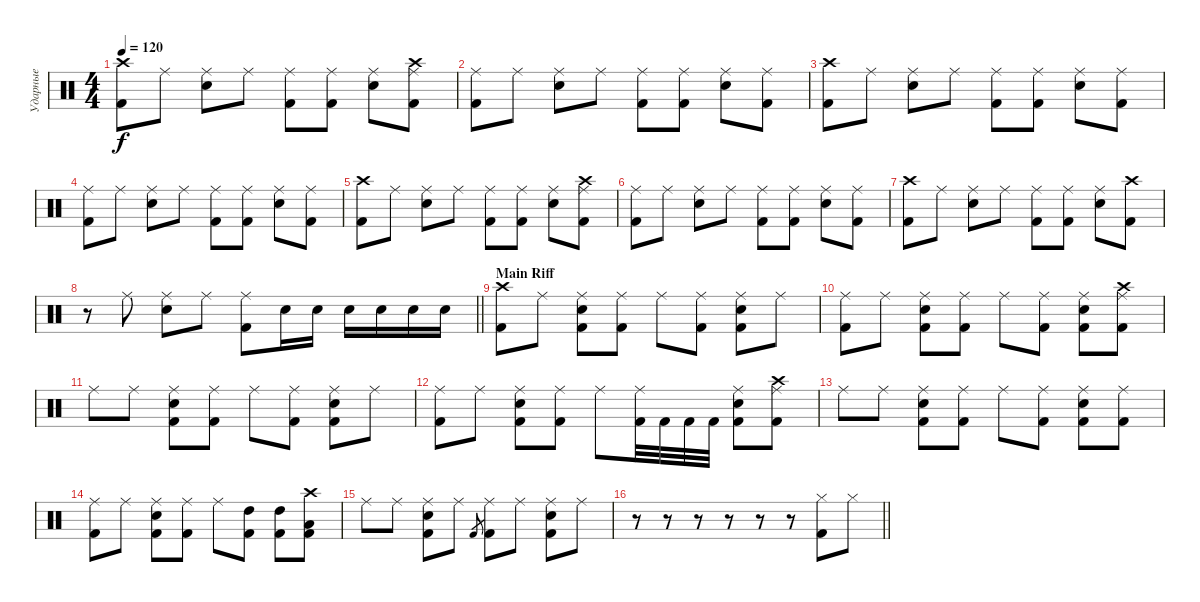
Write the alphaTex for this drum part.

\track ("Ударные" "Ударные") {instrument percussion}
\staff {score}
\articulation defaults
\ts (4 4)
\tempo 120
\clef neutral
\ks c
("Crash high (hit)" "Kick (hit) 2").8{dy f} "Ride (middle)".8 ("Ride (middle)" "Electric Snare (hit)").8 "Ride (middle)".8 ("Ride (middle)" "Kick (hit) 2").8 ("Ride (middle)" "Kick (hit) 2").8 ("Ride (middle)" "Electric Snare (hit)").8 ("Crash high (hit)" "Ride (middle)" "Kick (hit) 2").8 |
("Ride (middle)" "Kick (hit) 2").8 "Ride (middle)".8 ("Ride (middle)" "Electric Snare (hit)").8 "Ride (middle)".8 ("Ride (middle)" "Kick (hit) 2").8 ("Ride (middle)" "Kick (hit) 2").8 ("Ride (middle)" "Electric Snare (hit)").8 ("Ride (middle)" "Kick (hit) 2").8 |
("Crash high (hit)" "Kick (hit) 2").8 "Ride (middle)".8 ("Ride (middle)" "Electric Snare (hit)").8 "Ride (middle)".8 ("Ride (middle)" "Kick (hit) 2").8 ("Ride (middle)" "Kick (hit) 2").8 ("Ride (middle)" "Electric Snare (hit)").8 ("Ride (middle)" "Kick (hit) 2").8 |
("Ride (middle)" "Kick (hit) 2").8 "Ride (middle)".8 ("Ride (middle)" "Electric Snare (hit)").8 "Ride (middle)".8 ("Ride (middle)" "Kick (hit) 2").8 ("Ride (middle)" "Kick (hit) 2").8 ("Ride (middle)" "Electric Snare (hit)").8 ("Ride (middle)" "Kick (hit) 2").8 |
("Crash high (hit)" "Kick (hit) 2").8 "Ride (middle)".8 ("Ride (middle)" "Electric Snare (hit)").8 "Ride (middle)".8 ("Ride (middle)" "Kick (hit) 2").8 ("Ride (middle)" "Kick (hit) 2").8 ("Ride (middle)" "Electric Snare (hit)").8 ("Crash high (hit)" "Ride (middle)" "Kick (hit) 2").8 |
("Ride (middle)" "Kick (hit) 2").8 "Ride (middle)".8 ("Ride (middle)" "Electric Snare (hit)").8 "Ride (middle)".8 ("Ride (middle)" "Kick (hit) 2").8 ("Ride (middle)" "Kick (hit) 2").8 ("Ride (middle)" "Electric Snare (hit)").8 ("Ride (middle)" "Kick (hit) 2").8 |
("Crash high (hit)" "Kick (hit) 2").8 "Ride (middle)".8 ("Ride (middle)" "Electric Snare (hit)").8 "Ride (middle)".8 ("Ride (middle)" "Kick (hit) 2").8 ("Ride (middle)" "Kick (hit) 2").8 ("Ride (middle)" "Electric Snare (hit)").8 ("Crash high (hit)" "Kick (hit) 2").8 |
\barLineRight lightlight
r.8 "Ride (middle)".8 ("Ride (middle)" "Electric Snare (hit)").8 "Ride (middle)".8 ("Ride (middle)" "Kick (hit) 2").8 "Electric Snare (hit)".16 "Electric Snare (hit)".16 "Electric Snare (hit)".16 "Electric Snare (hit)".16 "Electric Snare (hit)".16 "Electric Snare (hit)".16 |
\section ("" "Main Riff")
("Crash high (hit)" "Kick (hit) 2").8 "Ride (middle)".8 ("Ride (middle)" "Electric Snare (hit)" "Kick (hit) 2").8 ("Ride (middle)" "Kick (hit) 2").8 "Ride (middle)".8 ("Ride (middle)" "Kick (hit) 2").8 ("Ride (middle)" "Electric Snare (hit)" "Kick (hit) 2").8 "Ride (middle)".8 |
("Ride (middle)" "Kick (hit) 2").8 "Ride (middle)".8 ("Ride (middle)" "Electric Snare (hit)" "Kick (hit) 2").8 ("Ride (middle)" "Kick (hit) 2").8 "Ride (middle)".8 ("Ride (middle)" "Kick (hit) 2").8 ("Ride (middle)" "Electric Snare (hit)" "Kick (hit) 2").8 ("Crash high (hit)" "Ride (middle)" "Kick (hit) 2").8 |
"Ride (middle)".8 "Ride (middle)".8 ("Ride (middle)" "Electric Snare (hit)" "Kick (hit) 2").8 ("Ride (middle)" "Kick (hit) 2").8 "Ride (middle)".8 ("Ride (middle)" "Kick (hit) 2").8 ("Ride (middle)" "Electric Snare (hit)" "Kick (hit) 2").8 "Ride (middle)".8 |
("Ride (middle)" "Kick (hit) 2").8 "Ride (middle)".8 ("Ride (middle)" "Electric Snare (hit)" "Kick (hit) 2").8 ("Ride (middle)" "Kick (hit) 2").8 "Ride (middle)".8 ("Ride (middle)" "Kick (hit) 2").32 "Kick (hit) 2".32 "Kick (hit) 2".32 "Kick (hit) 2".32 ("Ride (middle)" "Electric Snare (hit)" "Kick (hit) 2").8 ("Crash high (hit)" "Ride (middle)" "Kick (hit) 2").8 |
"Ride (middle)".8 "Ride (middle)".8 ("Ride (middle)" "Electric Snare (hit)" "Kick (hit) 2").8 ("Ride (middle)" "Kick (hit) 2").8 "Ride (middle)".8 ("Ride (middle)" "Kick (hit) 2").8 ("Ride (middle)" "Electric Snare (hit)" "Kick (hit) 2").8 ("Ride (middle)" "Kick (hit) 2").8 |
("Ride (middle)" "Kick (hit) 2").8 "Ride (middle)".8 ("Ride (middle)" "Electric Snare (hit)" "Kick (hit) 2").8 ("Ride (middle)" "Kick (hit) 2").8 "Ride (middle)".8 ("High Tom (hit)" "Kick (hit) 2").8 ("High Tom (hit)" "Kick (hit) 2").8 ("Crash high (hit)" "Low Tom (hit)" "Kick (hit) 2").8 |
"Ride (middle)".8 "Ride (middle)".8 ("Ride (middle)" "Electric Snare (hit)" "Kick (hit) 2").8 "Ride (middle)".8 "Kick (hit) 2".8{gr} ("Ride (middle)" "Kick (hit) 2").8 "Ride (middle)".8 ("Ride (middle)" "Electric Snare (hit)" "Kick (hit) 2").8 "Ride (middle)".8 |
\barLineRight lightlight
r.8 r.8 r.8 r.8 r.8 r.8 ("Hi-Hat (closed)" "Kick (hit) 2").8 "Hi-Hat (closed)".8
